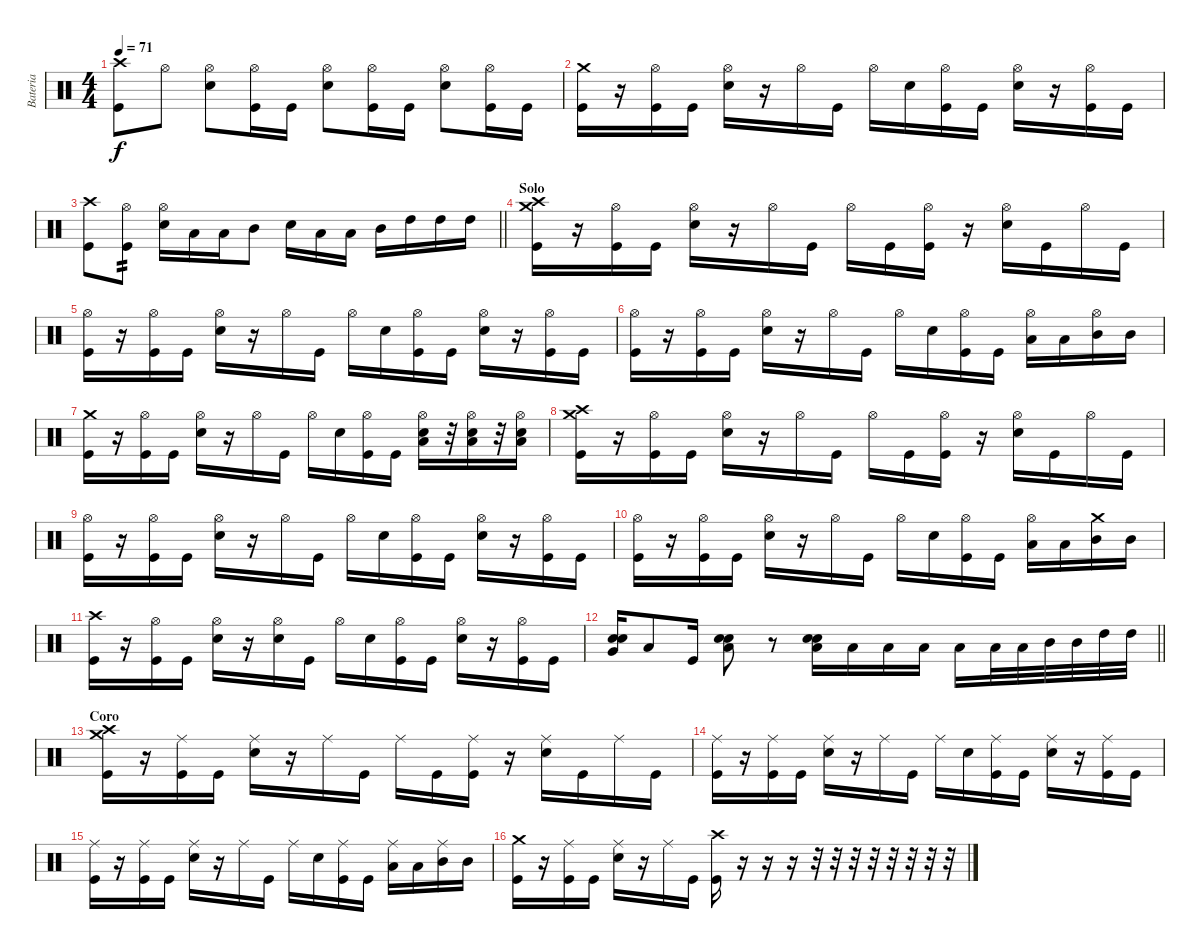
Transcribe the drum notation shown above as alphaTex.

\track ("Bateria" "Bateria") {instrument percussion}
\staff {score}
\articulation defaults
\ts (4 4)
\tempo 71
\clef neutral
\ks c
("Crash high (hit)" "Kick (hit)").8{dy f} "Hi-Hat (open)".8 ("Hi-Hat (open)" "Snare (hit) 2").8 ("Hi-Hat (open)" "Kick (hit)").16 "Kick (hit)".16 ("Hi-Hat (open)" "Snare (hit) 2").8 ("Hi-Hat (open)" "Kick (hit)").16 "Kick (hit)".16 ("Hi-Hat (open)" "Snare (hit) 2").8 ("Hi-Hat (open)" "Kick (hit)").16 "Kick (hit)".16 |
("Crash medium (hit)" "Kick (hit)").16 r.16 ("Hi-Hat (open)" "Kick (hit)").16 "Kick (hit)".16 ("Hi-Hat (open)" "Snare (hit) 2").16 r.16 "Hi-Hat (open)".16 "Kick (hit)".16 "Hi-Hat (open)".16 "Snare (hit) 2".16 ("Hi-Hat (open)" "Kick (hit)").16 "Kick (hit)".16 ("Hi-Hat (open)" "Snare (hit) 2").16 r.16 ("Hi-Hat (open)" "Kick (hit)").16 "Kick (hit)".16 |
\barLineRight lightlight
("Crash high (hit)" "Kick (hit)").8 ("Hi-Hat (open)" "Kick (hit)").8{tp 2} ("Hi-Hat (open)" "Snare (hit) 2").16 "Low Tom (hit)".16 "Low Tom (hit)".16 "Mid Tom (hit)".8 "Snare (hit) 2".16 "Low Tom (hit)".16 "Low Tom (hit)".16 "Mid Tom (hit)".16 "High Tom (hit)".16 "High Tom (hit)".16 "High Tom (hit)".16 |
\section ("" "Solo")
("Crash high (hit)" "Crash medium (hit)" "Kick (hit)").16 r.16 ("Hi-Hat (open)" "Kick (hit)").16 "Kick (hit)".16 ("Hi-Hat (open)" "Snare (hit) 2").16 r.16 "Hi-Hat (open)".16 "Kick (hit)".16 "Hi-Hat (open)".16 "Kick (hit)".16 ("Hi-Hat (open)" "Kick (hit)").16 r.16 ("Hi-Hat (open)" "Snare (hit) 2").16 "Kick (hit)".16 "Hi-Hat (open)".16 "Kick (hit)".16 |
("Hi-Hat (open)" "Kick (hit)").16 r.16 ("Hi-Hat (open)" "Kick (hit)").16 "Kick (hit)".16 ("Hi-Hat (open)" "Snare (hit) 2").16 r.16 "Hi-Hat (open)".16 "Kick (hit)".16 "Hi-Hat (open)".16 "Snare (hit) 2".16 ("Hi-Hat (open)" "Kick (hit)").16 "Kick (hit)".16 ("Hi-Hat (open)" "Snare (hit) 2").16 r.16 ("Hi-Hat (open)" "Kick (hit)").16 "Kick (hit)".16 |
("Hi-Hat (open)" "Kick (hit)").16 r.16 ("Hi-Hat (open)" "Kick (hit)").16 "Kick (hit)".16 ("Hi-Hat (open)" "Snare (hit) 2").16 r.16 "Hi-Hat (open)".16 "Kick (hit)".16 "Hi-Hat (open)".16 "Snare (hit) 2".16 ("Hi-Hat (open)" "Kick (hit)").16 "Kick (hit)".16 ("Hi-Hat (open)" "Low Tom (hit)").16 "Low Tom (hit)".16 ("Hi-Hat (open)" "Mid Tom (hit)").16 "Mid Tom (hit)".16 |
("Crash medium (hit)" "Kick (hit)").16 r.16 ("Hi-Hat (open)" "Kick (hit)").16 "Kick (hit)".16 ("Hi-Hat (open)" "Snare (hit) 2").16 r.16 "Hi-Hat (open)".16 "Kick (hit)".16 "Hi-Hat (open)".16 "Snare (hit) 2".16 ("Hi-Hat (open)" "Kick (hit)").16 "Kick (hit)".16 ("Hi-Hat (open)" "Low Tom (hit)" "Snare (hit) 2").16 r.32 ("Hi-Hat (open)" "Low Tom (hit)" "Snare (hit) 2").16 r.32 ("Hi-Hat (open)" "Low Tom (hit)" "Snare (hit) 2").16 |
("Crash high (hit)" "Crash medium (hit)" "Kick (hit)").16 r.16 ("Hi-Hat (open)" "Kick (hit)").16 "Kick (hit)".16 ("Hi-Hat (open)" "Snare (hit) 2").16 r.16 "Hi-Hat (open)".16 "Kick (hit)".16 "Hi-Hat (open)".16 "Kick (hit)".16 ("Hi-Hat (open)" "Kick (hit)").16 r.16 ("Hi-Hat (open)" "Snare (hit) 2").16 "Kick (hit)".16 "Hi-Hat (open)".16 "Kick (hit)".16 |
("Hi-Hat (open)" "Kick (hit)").16 r.16 ("Hi-Hat (open)" "Kick (hit)").16 "Kick (hit)".16 ("Hi-Hat (open)" "Snare (hit) 2").16 r.16 "Hi-Hat (open)".16 "Kick (hit)".16 "Hi-Hat (open)".16 "Snare (hit) 2".16 ("Hi-Hat (open)" "Kick (hit)").16 "Kick (hit)".16 ("Hi-Hat (open)" "Snare (hit) 2").16 r.16 ("Hi-Hat (open)" "Kick (hit)").16 "Kick (hit)".16 |
("Hi-Hat (open)" "Kick (hit)").16 r.16 ("Hi-Hat (open)" "Kick (hit)").16 "Kick (hit)".16 ("Hi-Hat (open)" "Snare (hit) 2").16 r.16 "Hi-Hat (open)".16 "Kick (hit)".16 "Hi-Hat (open)".16 "Snare (hit) 2".16 ("Hi-Hat (open)" "Kick (hit)").16 "Kick (hit)".16 ("Hi-Hat (open)" "Low Tom (hit)").16 "Low Tom (hit)".16 ("Crash medium (hit)" "Mid Tom (hit)").16 "Mid Tom (hit)".16 |
("Crash high (hit)" "Kick (hit)").16 r.16 ("Hi-Hat (open)" "Kick (hit)").16 "Kick (hit)".16 ("Hi-Hat (open)" "Snare (hit) 2").16 r.16 ("Hi-Hat (open)" "Snare (hit) 2").16 "Kick (hit)".16 "Hi-Hat (open)".16 "Snare (hit) 2".16 ("Hi-Hat (open)" "Kick (hit)").16 "Kick (hit)".16 ("Hi-Hat (open)" "Snare (hit) 2").16 r.16 ("Hi-Hat (open)" "Kick (hit)").16 "Kick (hit)".16 |
\barLineRight lightlight
("Snare (hit) 2" "Snare (hit) 2" "Very Low Tom (hit)").16{bd 60} "Low Tom (hit)".8 "Kick (hit)".16 ("Snare (hit) 2" "Snare (hit) 2" "Low Tom (hit)").8{bd 60} r.8 ("Snare (hit) 2" "Snare (hit) 2" "Low Tom (hit)").16{bd 60} "Low Tom (hit)".16 "Low Tom (hit)".16 "Low Tom (hit)".16 "Low Tom (hit)".16 "Low Tom (hit)".32 "Low Tom (hit)".32 "Mid Tom (hit)".32 "Mid Tom (hit)".32 "High Tom (hit)".32 "High Tom (hit)".32 |
\section ("" "Coro")
("Crash high (hit)" "Crash medium (hit)" "Kick (hit)").16 r.16 ("Ride (middle)" "Kick (hit)").16 "Kick (hit)".16 ("Ride (middle)" "Snare (hit) 2").16 r.16 "Ride (middle)".16 "Kick (hit)".16 "Ride (middle)".16 "Kick (hit)".16 ("Ride (middle)" "Kick (hit)").16 r.16 ("Ride (middle)" "Snare (hit) 2").16 "Kick (hit)".16 "Ride (middle)".16 "Kick (hit)".16 |
("Ride (middle)" "Kick (hit)").16 r.16 ("Ride (middle)" "Kick (hit)").16 "Kick (hit)".16 ("Ride (middle)" "Snare (hit) 2").16 r.16 "Ride (middle)".16 "Kick (hit)".16 "Ride (middle)".16 "Snare (hit) 2".16 ("Ride (middle)" "Kick (hit)").16 "Kick (hit)".16 ("Ride (middle)" "Snare (hit) 2").16 r.16 ("Ride (middle)" "Kick (hit)").16 "Kick (hit)".16 |
("Ride (middle)" "Kick (hit)").16 r.16 ("Ride (middle)" "Kick (hit)").16 "Kick (hit)".16 ("Ride (middle)" "Snare (hit) 2").16 r.16 "Ride (middle)".16 "Kick (hit)".16 "Ride (middle)".16 "Snare (hit) 2".16 ("Ride (middle)" "Kick (hit)").16 "Kick (hit)".16 ("Ride (middle)" "Low Tom (hit)").16 "Low Tom (hit)".16 ("Ride (middle)" "Mid Tom (hit)").16 "Mid Tom (hit)".16 |
("Crash medium (hit)" "Kick (hit)").16 r.16 ("Ride (middle)" "Kick (hit)").16 "Kick (hit)".16 ("Ride (middle)" "Snare (hit) 2").16 r.16 "Ride (middle)".16 "Kick (hit)".16 ("Crash high (hit)" "Kick (hit)").16 r.16 r.16 r.16 r.32 r.32 r.32 r.32 r.32 r.32 r.32 r.32
